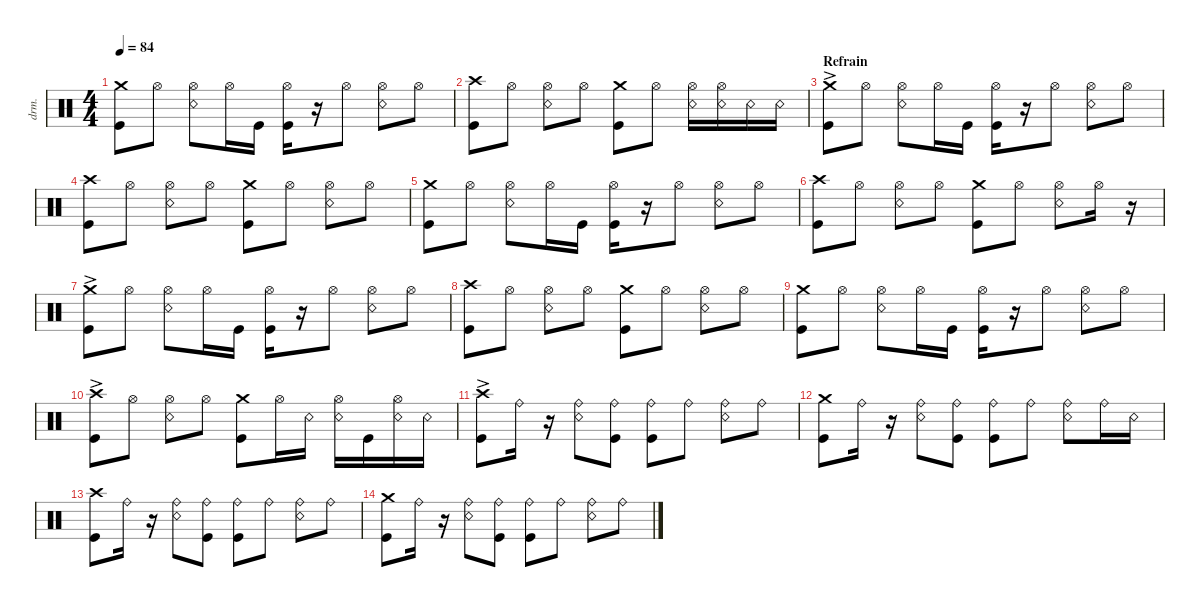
\defaultSystemsLayout 4
\hideDynamics
\bracketExtendMode nobrackets
\otherSystemsTrackNameOrientation horizontal
\track ("Drumkit" "drm.") {instrument percussion}
\staff {score}
\articulation defaults
\ts (4 4)
\tempo 84
\clef neutral
\ks aminor
("Kick (hit)" "Crash medium (hit)").8{dy f beam Down} "Hi-Hat (open)".8{beam Down} ("Hi-Hat (open)" "Snare (rim shot)").8{beam Down} "Hi-Hat (open)".16{beam Down} "Kick (hit)".16{beam Down} ("Hi-Hat (open)" "Kick (hit)").16{beam Down} r.16{beam Down} "Hi-Hat (open)".8{beam Down} ("Hi-Hat (open)" "Snare (rim shot)").8{beam Down} "Hi-Hat (open)".8{beam Down} |
("Kick (hit)" "Crash high (hit)").8{beam Down} "Hi-Hat (open)".8{beam Down} ("Snare (rim shot)" "Hi-Hat (open)").8{beam Down} "Hi-Hat (open)".8{beam Down} ("Crash medium (hit)" "Kick (hit)").8{beam Down} "Hi-Hat (open)".8{beam Down} ("Hi-Hat (open)" "Snare (rim shot)").16{beam Down} ("Hi-Hat (open)" "Snare (rim shot)").16{beam Down} "Snare (rim shot)".16{beam Down} "Snare (rim shot)".16{beam Down} |
\section ("" "Refrain")
("Kick (hit)" "Crash medium (hit)"{ac}).8{beam Down} "Hi-Hat (open)".8{beam Down} ("Hi-Hat (open)" "Snare (rim shot)").8{beam Down} "Hi-Hat (open)".16{beam Down} "Kick (hit)".16{beam Down} ("Hi-Hat (open)" "Kick (hit)").16{beam Down} r.16{beam Down} "Hi-Hat (open)".8{beam Down} ("Hi-Hat (open)" "Snare (rim shot)").8{beam Down} "Hi-Hat (open)".8{beam Down} |
("Kick (hit)" "Crash high (hit)").8{beam Down} "Hi-Hat (open)".8{beam Down} ("Snare (rim shot)" "Hi-Hat (open)").8{beam Down} "Hi-Hat (open)".8{beam Down} ("Crash medium (hit)" "Kick (hit)").8{beam Down} "Hi-Hat (open)".8{beam Down} ("Hi-Hat (open)" "Snare (rim shot)").8{beam Down} "Hi-Hat (open)".8{beam Down} |
("Kick (hit)" "Crash medium (hit)").8{beam Down} "Hi-Hat (open)".8{beam Down} ("Hi-Hat (open)" "Snare (rim shot)").8{beam Down} "Hi-Hat (open)".16{beam Down} "Kick (hit)".16{beam Down} ("Hi-Hat (open)" "Kick (hit)").16{beam Down} r.16{beam Down} "Hi-Hat (open)".8{beam Down} ("Hi-Hat (open)" "Snare (rim shot)").8{beam Down} "Hi-Hat (open)".8{beam Down} |
("Kick (hit)" "Crash high (hit)").8{beam Down} "Hi-Hat (open)".8{beam Down} ("Snare (rim shot)" "Hi-Hat (open)").8{beam Down} "Hi-Hat (open)".8{beam Down} ("Crash medium (hit)" "Kick (hit)").8{beam Down} "Hi-Hat (open)".8{beam Down} ("Snare (rim shot)" "Hi-Hat (open)").8{beam Down} "Hi-Hat (open)".16{beam Down} r.16{beam Down} |
("Kick (hit)" "Crash medium (hit)"{ac}).8{beam Down} "Hi-Hat (open)".8{beam Down} ("Hi-Hat (open)" "Snare (rim shot)").8{beam Down} "Hi-Hat (open)".16{beam Down} "Kick (hit)".16{beam Down} ("Hi-Hat (open)" "Kick (hit)").16{beam Down} r.16{beam Down} "Hi-Hat (open)".8{beam Down} ("Hi-Hat (open)" "Snare (rim shot)").8{beam Down} "Hi-Hat (open)".8{beam Down} |
("Kick (hit)" "Crash high (hit)").8{beam Down} "Hi-Hat (open)".8{beam Down} ("Snare (rim shot)" "Hi-Hat (open)").8{beam Down} "Hi-Hat (open)".8{beam Down} ("Crash medium (hit)" "Kick (hit)").8{beam Down} "Hi-Hat (open)".8{beam Down} ("Hi-Hat (open)" "Snare (rim shot)").8{beam Down} "Hi-Hat (open)".8{beam Down} |
("Kick (hit)" "Crash medium (hit)").8{beam Down} "Hi-Hat (open)".8{beam Down} ("Hi-Hat (open)" "Snare (rim shot)").8{beam Down} "Hi-Hat (open)".16{beam Down} "Kick (hit)".16{beam Down} ("Hi-Hat (open)" "Kick (hit)").16{beam Down} r.16{beam Down} "Hi-Hat (open)".8{beam Down} ("Hi-Hat (open)" "Snare (rim shot)").8{beam Down} "Hi-Hat (open)".8{beam Down} |
("Kick (hit)" "Crash high (hit)"{ac}).8{beam Down} "Hi-Hat (open)".8{beam Down} ("Snare (rim shot)" "Hi-Hat (open)").8{beam Down} "Hi-Hat (open)".8{beam Down} ("Crash medium (hit)" "Kick (hit)").8{beam Down} "Hi-Hat (open)".16{beam Down} "Snare (rim shot)".16{beam Down} ("Hi-Hat (open)" "Snare (rim shot)").16{beam Down} "Kick (hit)".16{beam Down} ("Snare (rim shot)" "Hi-Hat (open)").16{beam Down} "Snare (rim shot)".16{beam Down} |
("Kick (hit)" "Crash high (hit)"{ac}).8{beam Down} "Ride (bell)".16{beam Down} r.16{beam Down} ("Ride (bell)" "Snare (rim shot)").8{beam Down} ("Ride (bell)" "Kick (hit)").8{beam Down} ("Ride (bell)" "Kick (hit)").8{beam Down} "Ride (bell)".8{beam Down} ("Ride (bell)" "Snare (rim shot)").8{beam Down} "Ride (bell)".8{beam Down} |
("Kick (hit)" "Crash medium (hit)").8{beam Down} "Ride (bell)".16{beam Down} r.16{beam Down} ("Ride (bell)" "Snare (rim shot)").8{beam Down} ("Ride (bell)" "Kick (hit)").8{beam Down} ("Ride (bell)" "Kick (hit)").8{beam Down} "Ride (bell)".8{beam Down} ("Ride (bell)" "Snare (rim shot)").8{beam Down} "Ride (bell)".16{beam Down} "Snare (rim shot)".16{beam Down} |
("Kick (hit)" "Crash high (hit)").8{beam Down} "Ride (bell)".16{beam Down} r.16{beam Down} ("Ride (bell)" "Snare (rim shot)").8{beam Down} ("Ride (bell)" "Kick (hit)").8{beam Down} ("Ride (bell)" "Kick (hit)").8{beam Down} "Ride (bell)".8{beam Down} ("Ride (bell)" "Snare (rim shot)").8{beam Down} "Ride (bell)".8{beam Down} |
("Kick (hit)" "Crash medium (hit)").8{beam Down} "Ride (bell)".16{beam Down} r.16{beam Down} ("Ride (bell)" "Snare (rim shot)").8{beam Down} ("Ride (bell)" "Kick (hit)").8{beam Down} ("Ride (bell)" "Kick (hit)").8{beam Down} "Ride (bell)".8{beam Down} ("Ride (bell)" "Snare (rim shot)").8{beam Down} "Ride (bell)".8{beam Down}
